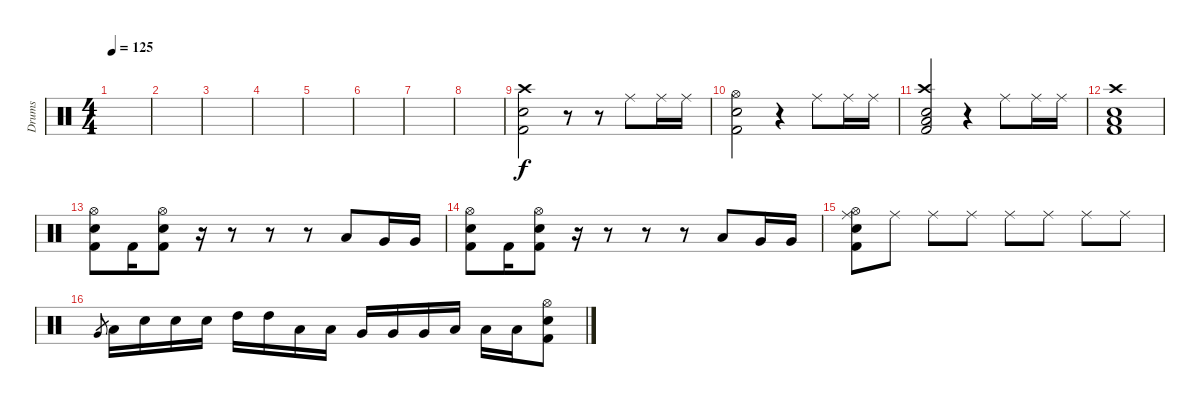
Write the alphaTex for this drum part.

\track ("Drums" "Drums") {instrument percussion}
\staff {score}
\articulation defaults
\ts (4 4)
\tempo 125
\clef neutral
\ks c
|
|
|
|
|
|
|
|
("Kick (hit) 2" "Electric Snare (hit)" "Crash high (hit)").2 r.8 r.8 "Ride (middle)".8 "Ride (middle)".16 "Ride (middle)".16 |
("Kick (hit) 2" "Electric Snare (hit)" "Hi-Hat (open)").2 r.4 "Ride (middle)".8 "Ride (middle)".16 "Ride (middle)".16 |
("Low Floor Tom (hit)" "Crash high (hit)" "Electric Snare (hit)" "Kick (hit) 2").2 r.4 "Ride (middle)".8 "Ride (middle)".16 "Ride (middle)".16 |
("Low Floor Tom (hit)" "Kick (hit) 2" "Crash high (hit)" "Electric Snare (hit)").1 |
("Hi-Hat (open)" "Electric Snare (hit)" "Kick (hit) 2").8 "Kick (hit) 2".16 ("Electric Snare (hit)" "Hi-Hat (open)" "Kick (hit) 2").8 r.16 r.8 r.8 r.8 "Low Tom (hit)".8 "Very Low Tom (hit)".16 "Very Low Tom (hit)".16 |
("Hi-Hat (open)" "Electric Snare (hit)" "Kick (hit) 2").8 "Kick (hit) 2".16 ("Electric Snare (hit)" "Hi-Hat (open)" "Kick (hit) 2").8 r.16 r.8 r.8 r.8 "Low Tom (hit)".8 "Very Low Tom (hit)".16 "Very Low Tom (hit)".16 |
("Hi-Hat (open)" "Kick (hit) 2" "Electric Snare (hit)" "Ride (middle)").8 "Ride (middle)".8 "Ride (middle)".8 "Ride (middle)".8 "Ride (middle)".8 "Ride (middle)".8 "Ride (middle)".8 "Ride (middle)".8 |
"Very Low Tom (hit)".8{gr} "Low Tom (hit)".16 "Electric Snare (hit)".16 "Electric Snare (hit)".16 "Electric Snare (hit)".16 "High Tom (hit)".16 "High Tom (hit)".16 "Low Tom (hit)".16 "Low Tom (hit)".16 "Very Low Tom (hit)".16 "Very Low Tom (hit)".16 "Very Low Tom (hit)".16 "Low Floor Tom (hit)".16 "Low Floor Tom (hit)".16 "Low Floor Tom (hit)".16 ("Kick (hit) 2" "Hi-Hat (open)" "Electric Snare (hit)").8
